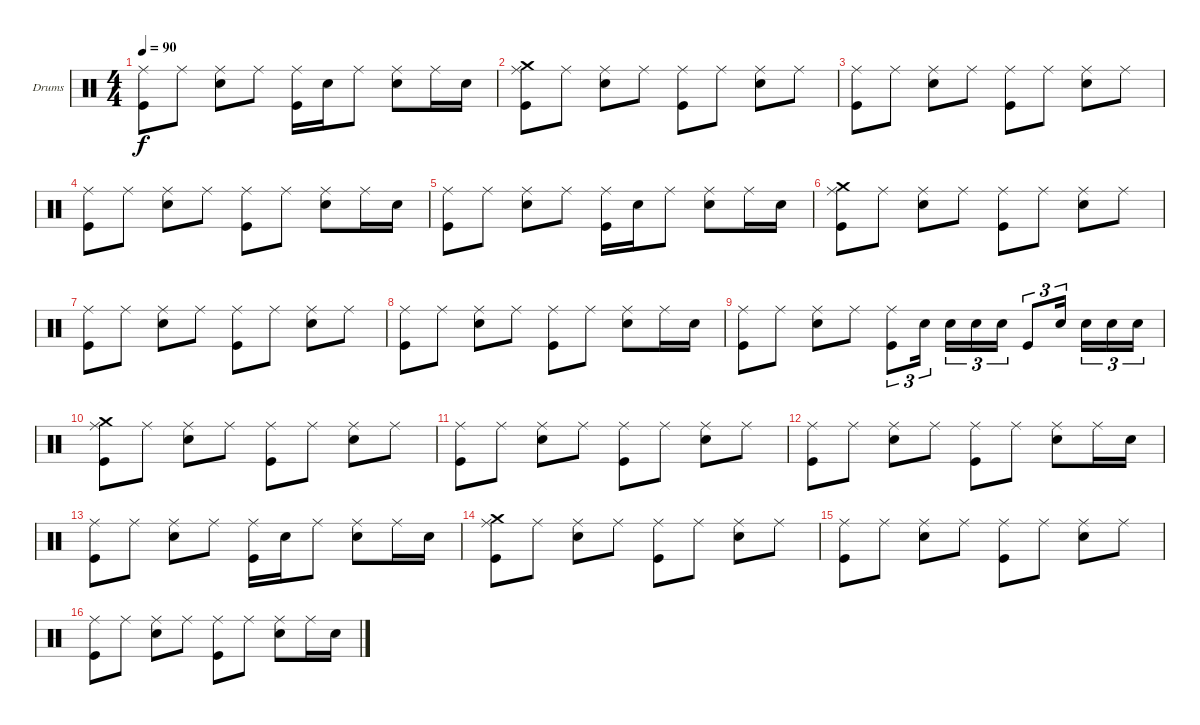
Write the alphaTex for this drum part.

\bracketExtendMode groupsimilarinstruments
\firstSystemTrackNameOrientation horizontal
\otherSystemsTrackNameOrientation horizontal
\track ("Drumkit" "Drums") {instrument percussion}
\staff {score}
\articulation defaults
\ts (4 4)
\tempo 90
\clef neutral
\ks c
("Ride (middle)" "Kick (hit)").8{dy f} "Ride (middle)".8 ("Ride (middle)" "Snare (hit) 2").8 "Ride (middle)".8 ("Ride (middle)" "Kick (hit)").16 "Snare (hit) 2".16 "Ride (middle)".8 ("Ride (middle)" "Snare (hit) 2").8 "Ride (middle)".16 "Snare (hit) 2".16 |
("Crash medium (hit)" "Ride (middle)" "Kick (hit)").8 "Ride (middle)".8 ("Ride (middle)" "Snare (hit) 2").8 "Ride (middle)".8 ("Ride (middle)" "Kick (hit)").8 "Ride (middle)".8 ("Ride (middle)" "Snare (hit) 2").8 "Ride (middle)".8 |
("Ride (middle)" "Kick (hit)").8 "Ride (middle)".8 ("Ride (middle)" "Snare (hit) 2").8 "Ride (middle)".8 ("Ride (middle)" "Kick (hit)").8 "Ride (middle)".8 ("Ride (middle)" "Snare (hit) 2").8 "Ride (middle)".8 |
("Ride (middle)" "Kick (hit)").8 "Ride (middle)".8 ("Ride (middle)" "Snare (hit) 2").8 "Ride (middle)".8 ("Ride (middle)" "Kick (hit)").8 "Ride (middle)".8 ("Ride (middle)" "Snare (hit) 2").8 "Ride (middle)".16 "Snare (hit) 2".16 |
("Ride (middle)" "Kick (hit)").8 "Ride (middle)".8 ("Ride (middle)" "Snare (hit) 2").8 "Ride (middle)".8 ("Ride (middle)" "Kick (hit)").16 "Snare (hit) 2".16 "Ride (middle)".8 ("Ride (middle)" "Snare (hit) 2").8 "Ride (middle)".16 "Snare (hit) 2".16 |
("Crash medium (hit)" "Ride (middle)" "Kick (hit)").8 "Ride (middle)".8 ("Ride (middle)" "Snare (hit) 2").8 "Ride (middle)".8 ("Ride (middle)" "Kick (hit)").8 "Ride (middle)".8 ("Ride (middle)" "Snare (hit) 2").8 "Ride (middle)".8 |
("Ride (middle)" "Kick (hit)").8 "Ride (middle)".8 ("Ride (middle)" "Snare (hit) 2").8 "Ride (middle)".8 ("Ride (middle)" "Kick (hit)").8 "Ride (middle)".8 ("Ride (middle)" "Snare (hit) 2").8 "Ride (middle)".8 |
("Ride (middle)" "Kick (hit)").8 "Ride (middle)".8 ("Ride (middle)" "Snare (hit) 2").8 "Ride (middle)".8 ("Ride (middle)" "Kick (hit)").8 "Ride (middle)".8 ("Ride (middle)" "Snare (hit) 2").8 "Ride (middle)".16 "Snare (hit) 2".16 |
("Ride (middle)" "Kick (hit)").8 "Ride (middle)".8 ("Ride (middle)" "Snare (hit) 2").8 "Ride (middle)".8 ("Ride (middle)" "Kick (hit)").8{tu (3 2)} "Snare (hit) 2".16{tu (3 2)} "Snare (hit) 2".16{tu (3 2)} "Snare (hit) 2".16{tu (3 2)} "Snare (hit) 2".16{tu (3 2)} "Kick (hit)".8{tu (3 2)} "Snare (hit) 2".16{tu (3 2)} "Snare (hit) 2".16{tu (3 2)} "Snare (hit) 2".16{tu (3 2)} "Snare (hit) 2".16{tu (3 2)} |
("Crash medium (hit)" "Ride (middle)" "Kick (hit)").8 "Ride (middle)".8 ("Ride (middle)" "Snare (hit) 2").8 "Ride (middle)".8 ("Ride (middle)" "Kick (hit)").8 "Ride (middle)".8 ("Ride (middle)" "Snare (hit) 2").8 "Ride (middle)".8 |
("Ride (middle)" "Kick (hit)").8 "Ride (middle)".8 ("Ride (middle)" "Snare (hit) 2").8 "Ride (middle)".8 ("Ride (middle)" "Kick (hit)").8 "Ride (middle)".8 ("Ride (middle)" "Snare (hit) 2").8 "Ride (middle)".8 |
("Ride (middle)" "Kick (hit)").8 "Ride (middle)".8 ("Ride (middle)" "Snare (hit) 2").8 "Ride (middle)".8 ("Ride (middle)" "Kick (hit)").8 "Ride (middle)".8 ("Ride (middle)" "Snare (hit) 2").8 "Ride (middle)".16 "Snare (hit) 2".16 |
("Ride (middle)" "Kick (hit)").8 "Ride (middle)".8 ("Ride (middle)" "Snare (hit) 2").8 "Ride (middle)".8 ("Ride (middle)" "Kick (hit)").16 "Snare (hit) 2".16 "Ride (middle)".8 ("Ride (middle)" "Snare (hit) 2").8 "Ride (middle)".16 "Snare (hit) 2".16 |
("Crash medium (hit)" "Ride (middle)" "Kick (hit)").8 "Ride (middle)".8 ("Ride (middle)" "Snare (hit) 2").8 "Ride (middle)".8 ("Ride (middle)" "Kick (hit)").8 "Ride (middle)".8 ("Ride (middle)" "Snare (hit) 2").8 "Ride (middle)".8 |
("Ride (middle)" "Kick (hit)").8 "Ride (middle)".8 ("Ride (middle)" "Snare (hit) 2").8 "Ride (middle)".8 ("Ride (middle)" "Kick (hit)").8 "Ride (middle)".8 ("Ride (middle)" "Snare (hit) 2").8 "Ride (middle)".8 |
("Ride (middle)" "Kick (hit)").8 "Ride (middle)".8 ("Ride (middle)" "Snare (hit) 2").8 "Ride (middle)".8 ("Ride (middle)" "Kick (hit)").8 "Ride (middle)".8 ("Ride (middle)" "Snare (hit) 2").8 "Ride (middle)".16 "Snare (hit) 2".16
